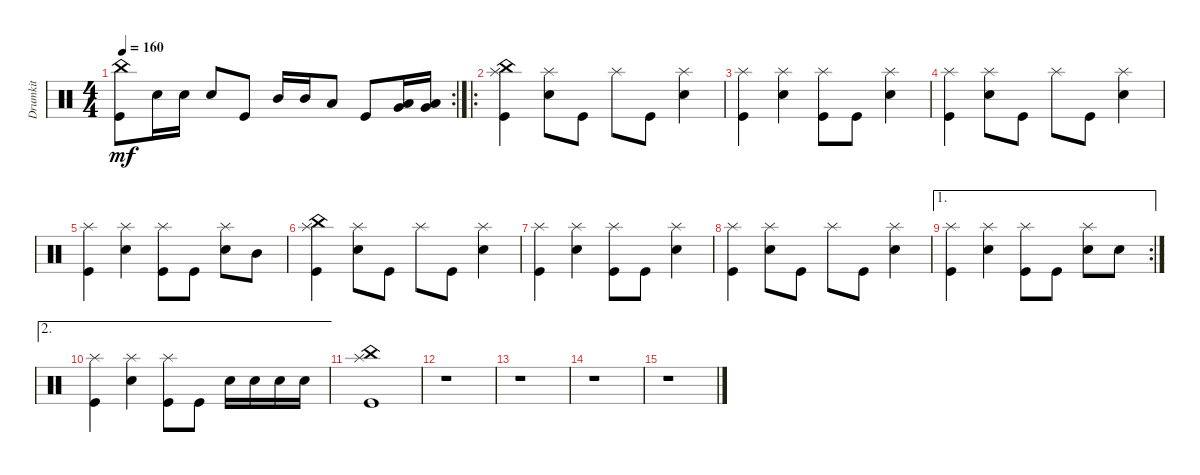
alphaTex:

\track ("Drumkit" "Drumkit") {instrument percussion}
\staff {score}
\articulation defaults
\rc 2
\ts (4 4)
\tempo 160
\clef neutral
\ks c
("Kick (hit)" "China (hit)").8{dy mf} "Snare (hit) 2".16 "Snare (hit) 2".16 "Snare (hit) 2".8 "Kick (hit)".8 "Mid Tom (hit)".16 "Mid Tom (hit)".16 "Low Tom (hit)".8 "Kick (hit)".8 ("Low Floor Tom (hit)" "Very Low Tom (hit)").16 ("Low Floor Tom (hit)" "Very Low Tom (hit)").16 |
\ro
("Kick (hit)" "Splash (hit)" "China (hit)").4 ("Snare (hit) 2" "Splash (hit)").8 "Kick (hit)".8 "Splash (hit)".8 "Kick (hit)".8 ("Snare (hit) 2" "Splash (hit)").4 |
("Kick (hit)" "Splash (hit)").4 ("Snare (hit) 2" "Splash (hit)").4 ("Kick (hit)" "Splash (hit)").8 "Kick (hit)".8 ("Snare (hit) 2" "Splash (hit)").4 |
("Kick (hit)" "Splash (hit)").4 ("Snare (hit) 2" "Splash (hit)").8 "Kick (hit)".8 "Splash (hit)".8 "Kick (hit)".8 ("Snare (hit) 2" "Splash (hit)").4 |
("Kick (hit)" "Splash (hit)").4 ("Snare (hit) 2" "Splash (hit)").4 ("Kick (hit)" "Splash (hit)").8 "Kick (hit)".8 ("Snare (hit) 2" "Splash (hit)").8 "Mid Tom (hit)".8 |
("Kick (hit)" "Splash (hit)" "China (hit)").4 ("Snare (hit) 2" "Splash (hit)").8 "Kick (hit)".8 "Splash (hit)".8 "Kick (hit)".8 ("Snare (hit) 2" "Splash (hit)").4 |
("Kick (hit)" "Splash (hit)").4 ("Snare (hit) 2" "Splash (hit)").4 ("Kick (hit)" "Splash (hit)").8 "Kick (hit)".8 ("Snare (hit) 2" "Splash (hit)").4 |
("Kick (hit)" "Splash (hit)").4 ("Snare (hit) 2" "Splash (hit)").8 "Kick (hit)".8 "Splash (hit)".8 "Kick (hit)".8 ("Snare (hit) 2" "Splash (hit)").4 |
\ae 1
\rc 2
("Kick (hit)" "Splash (hit)").4 ("Snare (hit) 2" "Splash (hit)").4 ("Kick (hit)" "Splash (hit)").8 "Kick (hit)".8 ("Snare (hit) 2" "Splash (hit)").8 "Snare (hit) 2".8 |
\ae 2
("Kick (hit)" "Splash (hit)").4 ("Snare (hit) 2" "Splash (hit)").4 ("Kick (hit)" "Splash (hit)").8 "Kick (hit)".8 "Snare (hit) 2".16 "Snare (hit) 2".16 "Snare (hit) 2".16 "Snare (hit) 2".16 |
("China (hit)" "Splash (hit)" "Kick (hit)").1 |
r.1 |
r.1 |
r.1 |
r.1
